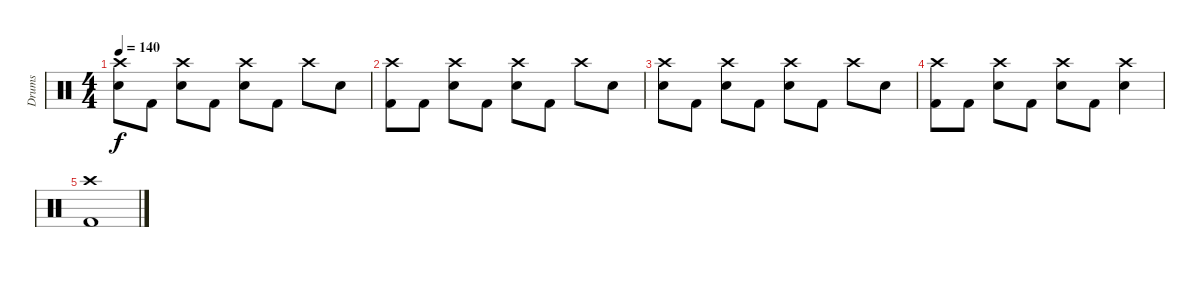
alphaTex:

\track ("Drums" "Drums") {instrument percussion}
\staff {score}
\articulation defaults
\ts (4 4)
\tempo 140
\clef neutral
\ks c
("Electric Snare (hit)" "Crash high (hit)").8{dy f} "Kick (hit) 2".8 ("Electric Snare (hit)" "Crash high (hit)").8 "Kick (hit) 2".8 ("Electric Snare (hit)" "Crash high (hit)").8 "Kick (hit) 2".8 "Crash high (hit)".8 "Electric Snare (hit)".8 |
("Crash high (hit)" "Kick (hit) 2").8 "Kick (hit) 2".8 ("Electric Snare (hit)" "Crash high (hit)").8 "Kick (hit) 2".8 ("Electric Snare (hit)" "Crash high (hit)").8 "Kick (hit) 2".8 "Crash high (hit)".8 "Electric Snare (hit)".8 |
("Electric Snare (hit)" "Crash high (hit)").8 "Kick (hit) 2".8 ("Electric Snare (hit)" "Crash high (hit)").8 "Kick (hit) 2".8 ("Electric Snare (hit)" "Crash high (hit)").8 "Kick (hit) 2".8 "Crash high (hit)".8 "Electric Snare (hit)".8 |
("Crash high (hit)" "Kick (hit) 2").8 "Kick (hit) 2".8 ("Electric Snare (hit)" "Crash high (hit)").8 "Kick (hit) 2".8 ("Electric Snare (hit)" "Crash high (hit)").8 "Kick (hit) 2".8 ("Electric Snare (hit)" "Crash high (hit)").4 |
("Crash high (hit)" "Kick (hit) 2").1
